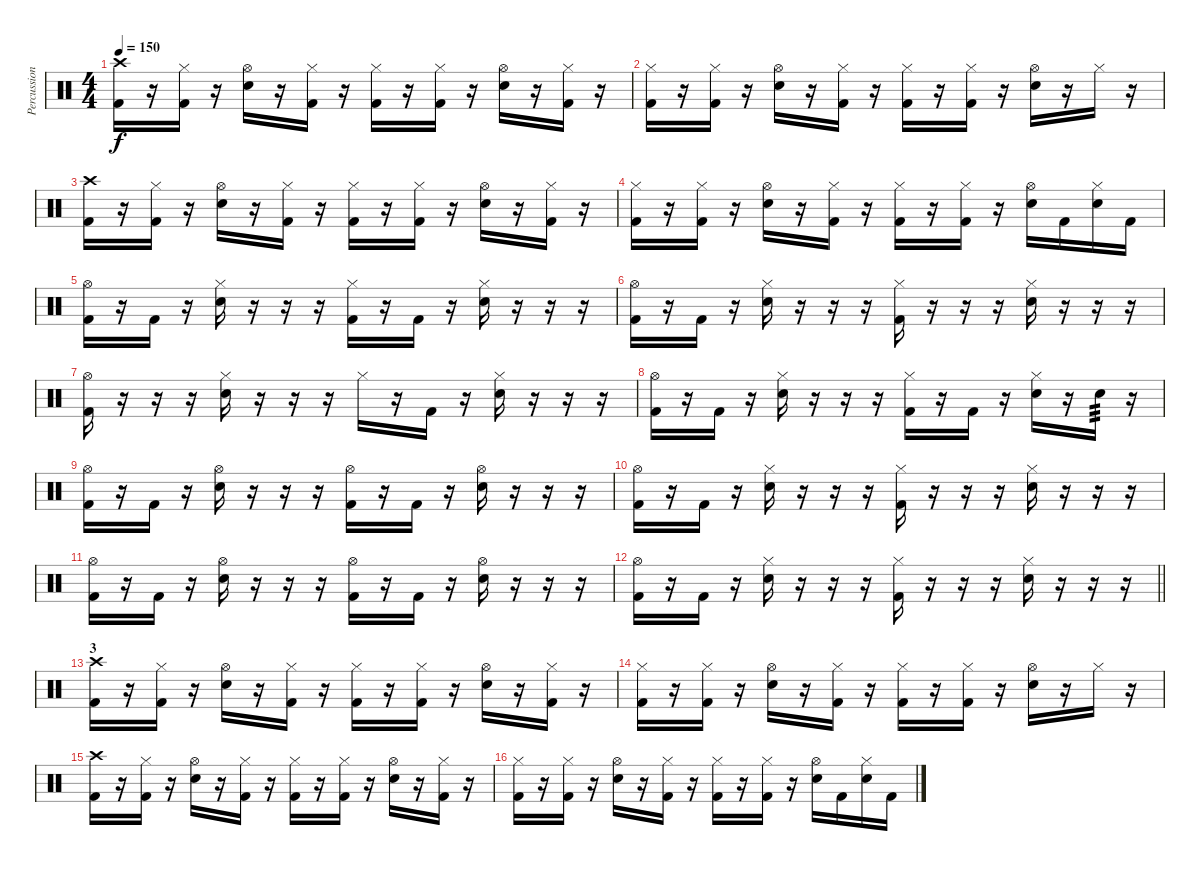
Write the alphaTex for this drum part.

\track ("Percussion" "Percussion") {instrument percussion}
\staff {score}
\articulation defaults
\ts (4 4)
\tempo 150
\clef neutral
\ks c
("Crash high (hit)" "Kick (hit) 2").16{dy f} r.16 ("Hi-Hat (closed)" "Kick (hit) 2").16 r.16 ("Hi-Hat (open)" "Snare (hit) 2").16 r.16 ("Hi-Hat (closed)" "Kick (hit) 2").16 r.16 ("Hi-Hat (closed)" "Kick (hit) 2").16 r.16 ("Hi-Hat (closed)" "Kick (hit) 2").16 r.16 ("Hi-Hat (open)" "Snare (hit) 2").16 r.16 ("Hi-Hat (closed)" "Kick (hit) 2").16 r.16 |
("Hi-Hat (closed)" "Kick (hit) 2").16 r.16 ("Hi-Hat (closed)" "Kick (hit) 2").16 r.16 ("Hi-Hat (open)" "Snare (hit) 2").16 r.16 ("Hi-Hat (closed)" "Kick (hit) 2").16 r.16 ("Hi-Hat (closed)" "Kick (hit) 2").16 r.16 ("Hi-Hat (closed)" "Kick (hit) 2").16 r.16 ("Hi-Hat (open)" "Snare (hit) 2").16 r.16 "Hi-Hat (closed)".16 r.16 |
("Crash high (hit)" "Kick (hit) 2").16 r.16 ("Hi-Hat (closed)" "Kick (hit) 2").16 r.16 ("Hi-Hat (open)" "Snare (hit) 2").16 r.16 ("Hi-Hat (closed)" "Kick (hit) 2").16 r.16 ("Hi-Hat (closed)" "Kick (hit) 2").16 r.16 ("Hi-Hat (closed)" "Kick (hit) 2").16 r.16 ("Hi-Hat (open)" "Snare (hit) 2").16 r.16 ("Hi-Hat (closed)" "Kick (hit) 2").16 r.16 |
("Hi-Hat (closed)" "Kick (hit) 2").16 r.16 ("Hi-Hat (closed)" "Kick (hit) 2").16 r.16 ("Hi-Hat (open)" "Snare (hit) 2").16 r.16 ("Hi-Hat (closed)" "Kick (hit) 2").16 r.16 ("Hi-Hat (closed)" "Kick (hit) 2").16 r.16 ("Hi-Hat (closed)" "Kick (hit) 2").16 r.16 ("Hi-Hat (open)" "Snare (hit) 2").16 "Kick (hit) 2".16 ("Hi-Hat (closed)" "Snare (hit) 2").16 "Kick (hit) 2".16 |
("Hi-Hat (open)" "Kick (hit) 2").16 r.16 "Kick (hit) 2".16 r.16 ("Hi-Hat (closed)" "Snare (hit) 2").16 r.16 r.16 r.16 ("Hi-Hat (closed)" "Kick (hit) 2").16 r.16 "Kick (hit) 2".16 r.16 ("Hi-Hat (closed)" "Snare (hit) 2").16 r.16 r.16 r.16 |
("Hi-Hat (open)" "Kick (hit) 2").16 r.16 "Kick (hit) 2".16 r.16 ("Hi-Hat (closed)" "Snare (hit) 2").16 r.16 r.16 r.16 ("Hi-Hat (closed)" "Kick (hit) 2").16 r.16 r.16 r.16 ("Hi-Hat (closed)" "Snare (hit) 2").16 r.16 r.16 r.16 |
("Hi-Hat (open)" "Kick (hit) 2").16 r.16 r.16 r.16 ("Hi-Hat (closed)" "Snare (hit) 2").16 r.16 r.16 r.16 "Hi-Hat (closed)".16 r.16 "Kick (hit) 2".16 r.16 ("Hi-Hat (closed)" "Snare (hit) 2").16 r.16 r.16 r.16 |
("Hi-Hat (open)" "Kick (hit) 2").16 r.16 "Kick (hit) 2".16 r.16 ("Hi-Hat (closed)" "Snare (hit) 2").16 r.16 r.16 r.16 ("Hi-Hat (closed)" "Kick (hit) 2").16 r.16 "Kick (hit) 2".16 r.16 ("Hi-Hat (closed)" "Snare (hit) 2").16 r.16 "Snare (hit) 2".16{tp 3} r.16 |
("Hi-Hat (open)" "Kick (hit) 2").16 r.16 "Kick (hit) 2".16 r.16 ("Hi-Hat (open)" "Snare (hit) 2").16 r.16 r.16 r.16 ("Hi-Hat (open)" "Kick (hit) 2").16 r.16 "Kick (hit) 2".16 r.16 ("Hi-Hat (open)" "Snare (hit) 2").16 r.16 r.16 r.16 |
("Hi-Hat (open)" "Kick (hit) 2").16 r.16 "Kick (hit) 2".16 r.16 ("Hi-Hat (closed)" "Snare (hit) 2").16 r.16 r.16 r.16 ("Hi-Hat (closed)" "Kick (hit) 2").16 r.16 r.16 r.16 ("Hi-Hat (closed)" "Snare (hit) 2").16 r.16 r.16 r.16 |
("Hi-Hat (open)" "Kick (hit) 2").16 r.16 "Kick (hit) 2".16 r.16 ("Hi-Hat (open)" "Snare (hit) 2").16 r.16 r.16 r.16 ("Hi-Hat (open)" "Kick (hit) 2").16 r.16 "Kick (hit) 2".16 r.16 ("Hi-Hat (open)" "Snare (hit) 2").16 r.16 r.16 r.16 |
\barLineRight lightlight
("Hi-Hat (open)" "Kick (hit) 2").16 r.16 "Kick (hit) 2".16 r.16 ("Hi-Hat (closed)" "Snare (hit) 2").16 r.16 r.16 r.16 ("Hi-Hat (closed)" "Kick (hit) 2").16 r.16 r.16 r.16 ("Hi-Hat (closed)" "Snare (hit) 2").16 r.16 r.16 r.16 |
\section ("" "3")
("Crash high (hit)" "Kick (hit) 2").16 r.16 ("Hi-Hat (closed)" "Kick (hit) 2").16 r.16 ("Hi-Hat (open)" "Snare (hit) 2").16 r.16 ("Hi-Hat (closed)" "Kick (hit) 2").16 r.16 ("Hi-Hat (closed)" "Kick (hit) 2").16 r.16 ("Hi-Hat (closed)" "Kick (hit) 2").16 r.16 ("Hi-Hat (open)" "Snare (hit) 2").16 r.16 ("Hi-Hat (closed)" "Kick (hit) 2").16 r.16 |
("Hi-Hat (closed)" "Kick (hit) 2").16 r.16 ("Hi-Hat (closed)" "Kick (hit) 2").16 r.16 ("Hi-Hat (open)" "Snare (hit) 2").16 r.16 ("Hi-Hat (closed)" "Kick (hit) 2").16 r.16 ("Hi-Hat (closed)" "Kick (hit) 2").16 r.16 ("Hi-Hat (closed)" "Kick (hit) 2").16 r.16 ("Hi-Hat (open)" "Snare (hit) 2").16 r.16 "Hi-Hat (closed)".16 r.16 |
("Crash high (hit)" "Kick (hit) 2").16 r.16 ("Hi-Hat (closed)" "Kick (hit) 2").16 r.16 ("Hi-Hat (open)" "Snare (hit) 2").16 r.16 ("Hi-Hat (closed)" "Kick (hit) 2").16 r.16 ("Hi-Hat (closed)" "Kick (hit) 2").16 r.16 ("Hi-Hat (closed)" "Kick (hit) 2").16 r.16 ("Hi-Hat (open)" "Snare (hit) 2").16 r.16 ("Hi-Hat (closed)" "Kick (hit) 2").16 r.16 |
("Hi-Hat (closed)" "Kick (hit) 2").16 r.16 ("Hi-Hat (closed)" "Kick (hit) 2").16 r.16 ("Hi-Hat (open)" "Snare (hit) 2").16 r.16 ("Hi-Hat (closed)" "Kick (hit) 2").16 r.16 ("Hi-Hat (closed)" "Kick (hit) 2").16 r.16 ("Hi-Hat (closed)" "Kick (hit) 2").16 r.16 ("Hi-Hat (open)" "Snare (hit) 2").16 "Kick (hit) 2".16 ("Hi-Hat (closed)" "Snare (hit) 2").16 "Kick (hit) 2".16
